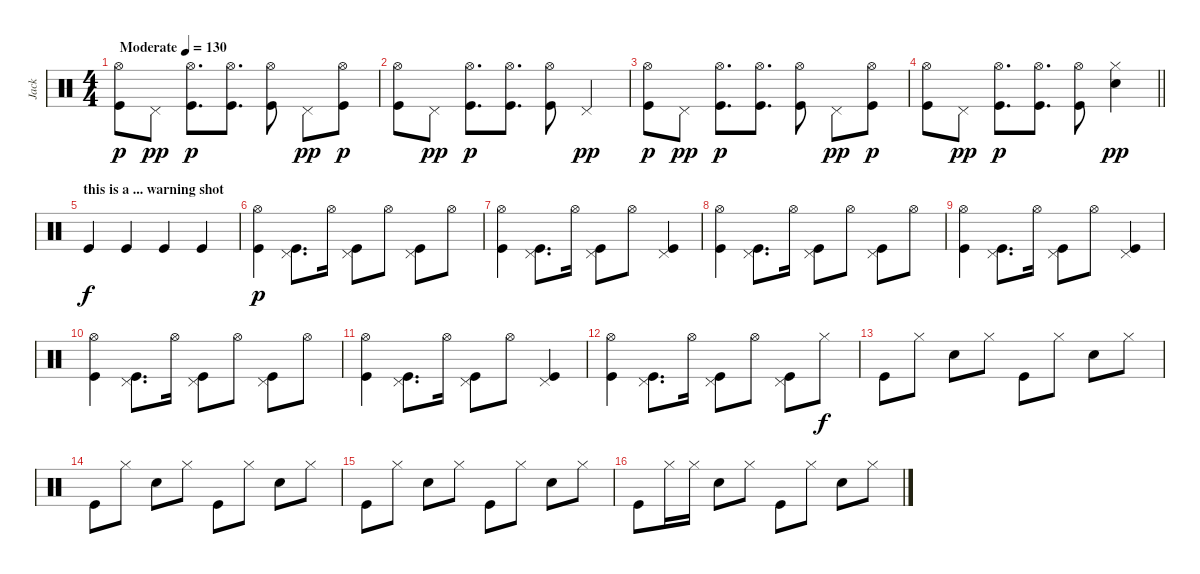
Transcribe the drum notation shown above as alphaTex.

\track ("Jack" "Jack") {instrument percussion}
\staff {score}
\articulation defaults
\ts (4 4)
\tempo (130 "Moderate")
\clef neutral
\ks c
("Hi-Hat (open)" "Kick (hit)").8{dy p} "Pedal Hi-Hat (hit)".8{dy pp} ("Hi-Hat (open)" "Kick (hit)").8{d dy p} ("Hi-Hat (open)" "Kick (hit)").8{d} ("Hi-Hat (open)" "Kick (hit)").8 "Pedal Hi-Hat (hit)".8{dy pp} ("Hi-Hat (open)" "Kick (hit)").8{dy p} |
("Hi-Hat (open)" "Kick (hit)").8 "Pedal Hi-Hat (hit)".8{dy pp} ("Hi-Hat (open)" "Kick (hit)").8{d dy p} ("Hi-Hat (open)" "Kick (hit)").8{d} ("Hi-Hat (open)" "Kick (hit)").8 "Pedal Hi-Hat (hit)".4{dy pp} |
("Hi-Hat (open)" "Kick (hit)").8{dy p} "Pedal Hi-Hat (hit)".8{dy pp} ("Hi-Hat (open)" "Kick (hit)").8{d dy p} ("Hi-Hat (open)" "Kick (hit)").8{d} ("Hi-Hat (open)" "Kick (hit)").8 "Pedal Hi-Hat (hit)".8{dy pp} ("Hi-Hat (open)" "Kick (hit)").8{dy p} |
\barLineRight lightlight
("Hi-Hat (open)" "Kick (hit)").8 "Pedal Hi-Hat (hit)".8{dy pp} ("Hi-Hat (open)" "Kick (hit)").8{d dy p} ("Hi-Hat (open)" "Kick (hit)").8{d} ("Hi-Hat (open)" "Kick (hit)").8 ("Hi-Hat (closed)" "Electric Snare (hit)").4{dy pp} |
\section ("" "this is a ... warning shot")
"Kick (hit)".4{dy f} "Kick (hit)".4 "Kick (hit)".4 "Kick (hit)".4 |
("Hi-Hat (open)" "Kick (hit)").4{dy p} ("Pedal Hi-Hat (hit)" "Kick (hit)").8{d} "Hi-Hat (open)".16 ("Pedal Hi-Hat (hit)" "Kick (hit)").8 "Hi-Hat (open)".8 ("Pedal Hi-Hat (hit)" "Kick (hit)").8 "Hi-Hat (open)".8 |
("Hi-Hat (open)" "Kick (hit)").4 ("Pedal Hi-Hat (hit)" "Kick (hit)").8{d} "Hi-Hat (open)".16 ("Pedal Hi-Hat (hit)" "Kick (hit)").8 "Hi-Hat (open)".8 ("Pedal Hi-Hat (hit)" "Kick (hit)").4 |
("Hi-Hat (open)" "Kick (hit)").4 ("Pedal Hi-Hat (hit)" "Kick (hit)").8{d} "Hi-Hat (open)".16 ("Pedal Hi-Hat (hit)" "Kick (hit)").8 "Hi-Hat (open)".8 ("Pedal Hi-Hat (hit)" "Kick (hit)").8 "Hi-Hat (open)".8 |
("Hi-Hat (open)" "Kick (hit)").4 ("Pedal Hi-Hat (hit)" "Kick (hit)").8{d} "Hi-Hat (open)".16 ("Pedal Hi-Hat (hit)" "Kick (hit)").8 "Hi-Hat (open)".8 ("Pedal Hi-Hat (hit)" "Kick (hit)").4 |
("Hi-Hat (open)" "Kick (hit)").4 ("Pedal Hi-Hat (hit)" "Kick (hit)").8{d} "Hi-Hat (open)".16 ("Pedal Hi-Hat (hit)" "Kick (hit)").8 "Hi-Hat (open)".8 ("Pedal Hi-Hat (hit)" "Kick (hit)").8 "Hi-Hat (open)".8 |
("Hi-Hat (open)" "Kick (hit)").4 ("Pedal Hi-Hat (hit)" "Kick (hit)").8{d} "Hi-Hat (open)".16 ("Pedal Hi-Hat (hit)" "Kick (hit)").8 "Hi-Hat (open)".8 ("Pedal Hi-Hat (hit)" "Kick (hit)").4 |
("Hi-Hat (open)" "Kick (hit)").4 ("Pedal Hi-Hat (hit)" "Kick (hit)").8{d} "Hi-Hat (open)".16 ("Pedal Hi-Hat (hit)" "Kick (hit)").8 "Hi-Hat (open)".8 ("Pedal Hi-Hat (hit)" "Kick (hit)").8 "Hi-Hat (closed)".8{dy f} |
"Kick (hit)".8 "Hi-Hat (closed)".8 "Electric Snare (hit)".8 "Hi-Hat (closed)".8 "Kick (hit)".8 "Hi-Hat (closed)".8 "Electric Snare (hit)".8 "Hi-Hat (closed)".8 |
"Kick (hit)".8 "Hi-Hat (closed)".8 "Electric Snare (hit)".8 "Hi-Hat (closed)".8 "Kick (hit)".8 "Hi-Hat (closed)".8 "Electric Snare (hit)".8 "Hi-Hat (closed)".8 |
"Kick (hit)".8 "Hi-Hat (closed)".8 "Electric Snare (hit)".8 "Hi-Hat (closed)".8 "Kick (hit)".8 "Hi-Hat (closed)".8 "Electric Snare (hit)".8 "Hi-Hat (closed)".8 |
"Kick (hit)".8 "Hi-Hat (closed)".16 "Hi-Hat (closed)".16 "Electric Snare (hit)".8 "Hi-Hat (closed)".8 "Kick (hit)".8 "Hi-Hat (closed)".8 "Electric Snare (hit)".8 "Hi-Hat (closed)".8
